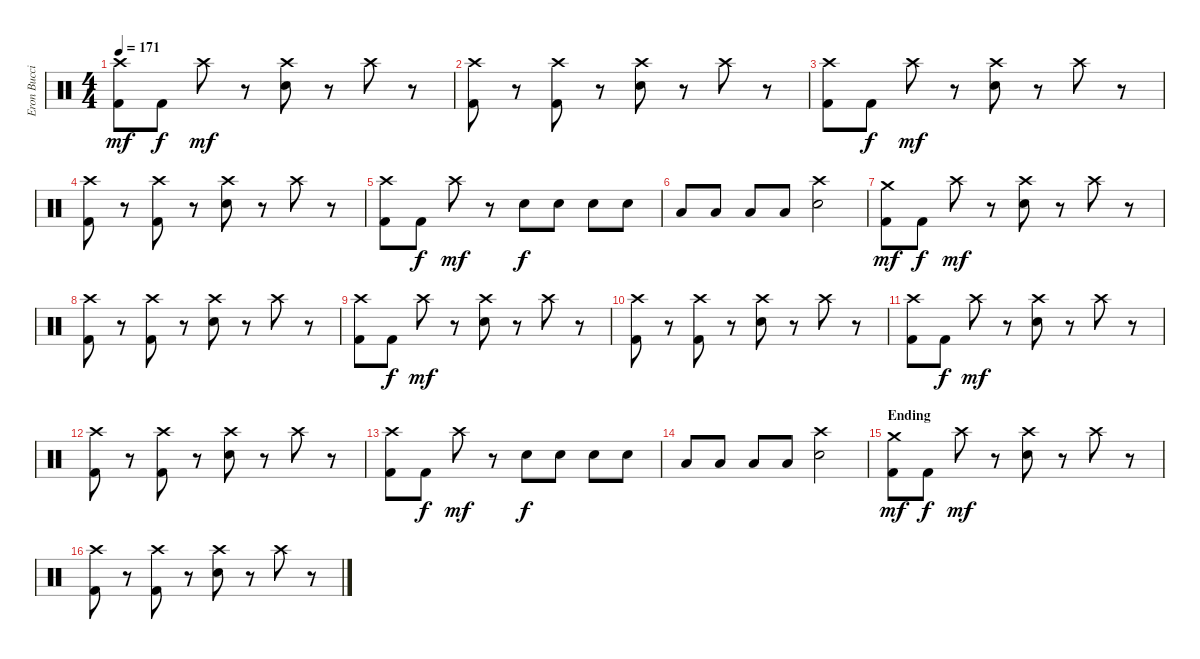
\track ("Eron Bucciarelli (Drums)" "Eron Bucci") {instrument percussion}
\staff {score}
\articulation defaults
\ts (4 4)
\tempo 171
\clef neutral
\ks c
("Crash high (hit)" "Kick (hit) 2").8{dy mf} "Kick (hit) 2".8{dy f} "Crash high (hit)".8{dy mf} r.8 ("Crash high (hit)" "Snare (hit) 2").8 r.8 "Crash high (hit)".8 r.8 |
("Crash high (hit)" "Kick (hit) 2").8 r.8 ("Crash high (hit)" "Kick (hit) 2").8 r.8 ("Crash high (hit)" "Snare (hit) 2").8 r.8 "Crash high (hit)".8 r.8 |
("Crash high (hit)" "Kick (hit) 2").8 "Kick (hit) 2".8{dy f} "Crash high (hit)".8{dy mf} r.8 ("Crash high (hit)" "Snare (hit) 2").8 r.8 "Crash high (hit)".8 r.8 |
("Crash high (hit)" "Kick (hit) 2").8 r.8 ("Crash high (hit)" "Kick (hit) 2").8 r.8 ("Crash high (hit)" "Snare (hit) 2").8 r.8 "Crash high (hit)".8 r.8 |
("Crash high (hit)" "Kick (hit) 2").8 "Kick (hit) 2".8{dy f} "Crash high (hit)".8{dy mf} r.8 "Snare (hit) 2".8{dy f} "Snare (hit) 2".8 "Snare (hit) 2".8 "Snare (hit) 2".8 |
"Low Tom (hit)".8 "Low Tom (hit)".8 "Low Floor Tom (hit)".8 "Low Floor Tom (hit)".8 ("Crash high (hit)" "Snare (hit) 2").2 |
("Crash medium (hit)" "Kick (hit) 2").8{dy mf} "Kick (hit) 2".8{dy f} "Crash high (hit)".8{dy mf} r.8 ("Crash high (hit)" "Snare (hit) 2").8 r.8 "Crash high (hit)".8 r.8 |
("Crash high (hit)" "Kick (hit) 2").8 r.8 ("Crash high (hit)" "Kick (hit) 2").8 r.8 ("Crash high (hit)" "Snare (hit) 2").8 r.8 "Crash high (hit)".8 r.8 |
("Crash high (hit)" "Kick (hit) 2").8 "Kick (hit) 2".8{dy f} "Crash high (hit)".8{dy mf} r.8 ("Crash high (hit)" "Snare (hit) 2").8 r.8 "Crash high (hit)".8 r.8 |
("Crash high (hit)" "Kick (hit) 2").8 r.8 ("Crash high (hit)" "Kick (hit) 2").8 r.8 ("Crash high (hit)" "Snare (hit) 2").8 r.8 "Crash high (hit)".8 r.8 |
("Crash high (hit)" "Kick (hit) 2").8 "Kick (hit) 2".8{dy f} "Crash high (hit)".8{dy mf} r.8 ("Crash high (hit)" "Snare (hit) 2").8 r.8 "Crash high (hit)".8 r.8 |
("Crash high (hit)" "Kick (hit) 2").8 r.8 ("Crash high (hit)" "Kick (hit) 2").8 r.8 ("Crash high (hit)" "Snare (hit) 2").8 r.8 "Crash high (hit)".8 r.8 |
("Crash high (hit)" "Kick (hit) 2").8 "Kick (hit) 2".8{dy f} "Crash high (hit)".8{dy mf} r.8 "Snare (hit) 2".8{dy f} "Snare (hit) 2".8 "Snare (hit) 2".8 "Snare (hit) 2".8 |
"Low Tom (hit)".8 "Low Tom (hit)".8 "Low Floor Tom (hit)".8 "Low Floor Tom (hit)".8 ("Crash high (hit)" "Snare (hit) 2").2 |
\section ("" "Ending")
("Crash medium (hit)" "Kick (hit) 2").8{dy mf} "Kick (hit) 2".8{dy f} "Crash high (hit)".8{dy mf} r.8 ("Crash high (hit)" "Snare (hit) 2").8 r.8 "Crash high (hit)".8 r.8 |
("Crash high (hit)" "Kick (hit) 2").8 r.8 ("Crash high (hit)" "Kick (hit) 2").8 r.8 ("Crash high (hit)" "Snare (hit) 2").8 r.8 "Crash high (hit)".8 r.8
